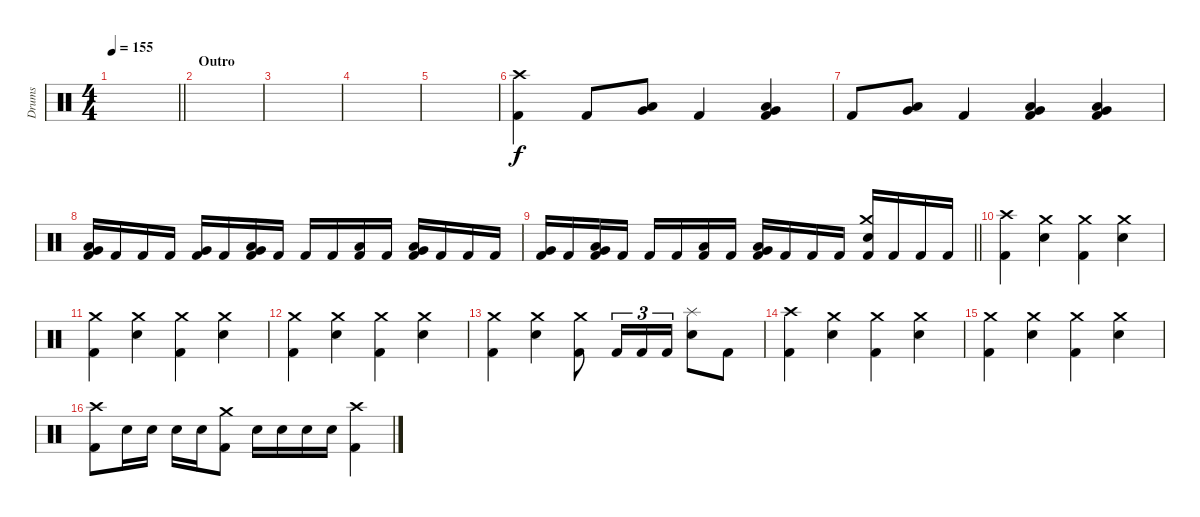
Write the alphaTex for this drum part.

\track ("Drums" "Drums") {instrument percussion}
\staff {score}
\articulation defaults
\ts (4 4)
\tempo 155
\clef neutral
\barLineRight lightlight
\ks c
|
\section ("" "Outro")
|
|
|
|
("Crash high (hit)" "Kick (hit) 2").4 "Kick (hit) 2".8 ("Low Tom (hit)" "Very Low Tom (hit)").8 "Kick (hit) 2".4 ("Very Low Tom (hit)" "Low Floor Tom (hit)" "Kick (hit) 2").4 |
"Kick (hit) 2".8 ("Low Tom (hit)" "Very Low Tom (hit)").8 "Kick (hit) 2".4 ("Very Low Tom (hit)" "Low Floor Tom (hit)" "Kick (hit) 2").4 ("Very Low Tom (hit)" "Low Floor Tom (hit)" "Kick (hit) 2").4 |
("Low Tom (hit)" "Very Low Tom (hit)" "Kick (hit) 2").16 "Kick (hit) 2".16 "Kick (hit) 2".16 "Kick (hit) 2".16 ("Very Low Tom (hit)" "Kick (hit) 2").16 "Kick (hit) 2".16 ("Very Low Tom (hit)" "Low Floor Tom (hit)" "Kick (hit) 2").16 "Kick (hit) 2".16 "Kick (hit) 2".16 "Kick (hit) 2".16 ("Low Tom (hit)" "Kick (hit) 2").16 "Kick (hit) 2".16 ("Low Tom (hit)" "Very Low Tom (hit)" "Kick (hit) 2").16 "Kick (hit) 2".16 "Kick (hit) 2".16 "Kick (hit) 2".16 |
\barLineRight lightlight
("Very Low Tom (hit)" "Kick (hit) 2").16 "Kick (hit) 2".16 ("Very Low Tom (hit)" "Low Floor Tom (hit)" "Kick (hit) 2").16 "Kick (hit) 2".16 "Kick (hit) 2".16 "Kick (hit) 2".16 ("Low Tom (hit)" "Kick (hit) 2").16 "Kick (hit) 2".16 ("Low Tom (hit)" "Very Low Tom (hit)" "Kick (hit) 2").16 "Kick (hit) 2".16 "Kick (hit) 2".16 "Kick (hit) 2".16 ("Crash medium (hit)" "Electric Snare (hit)" "Kick (hit) 2").16 "Kick (hit) 2".16 "Kick (hit) 2".16 "Kick (hit) 2".16 |
("Crash high (hit)" "Kick (hit) 2").4 ("Crash medium (hit)" "Electric Snare (hit)").4 ("Crash medium (hit)" "Kick (hit) 2").4 ("Crash medium (hit)" "Electric Snare (hit)").4 |
("Crash medium (hit)" "Kick (hit) 2").4 ("Crash medium (hit)" "Electric Snare (hit)").4 ("Crash medium (hit)" "Kick (hit) 2").4 ("Crash medium (hit)" "Electric Snare (hit)").4 |
("Crash medium (hit)" "Kick (hit) 2").4 ("Crash medium (hit)" "Electric Snare (hit)").4 ("Crash medium (hit)" "Kick (hit) 2").4 ("Crash medium (hit)" "Electric Snare (hit)").4 |
("Crash medium (hit)" "Kick (hit) 2").4 ("Crash medium (hit)" "Electric Snare (hit)").4 ("Crash medium (hit)" "Kick (hit) 2").8 "Kick (hit) 2".16{tu (3 2)} "Kick (hit) 2".16{tu (3 2)} "Kick (hit) 2".16{tu (3 2)} ("Splash (hit)" "Electric Snare (hit)").8 "Kick (hit) 2".8 |
("Crash high (hit)" "Kick (hit) 2").4 ("Crash medium (hit)" "Electric Snare (hit)").4 ("Crash medium (hit)" "Kick (hit) 2").4 ("Crash medium (hit)" "Electric Snare (hit)").4 |
("Crash medium (hit)" "Kick (hit) 2").4 ("Crash medium (hit)" "Electric Snare (hit)").4 ("Crash medium (hit)" "Kick (hit) 2").4 ("Crash medium (hit)" "Electric Snare (hit)").4 |
("Crash high (hit)" "Kick (hit) 2").8 "Electric Snare (hit)".16 "Electric Snare (hit)".16 "Electric Snare (hit)".16 "Electric Snare (hit)".16 ("Crash medium (hit)" "Kick (hit) 2").8 "Electric Snare (hit)".16 "Electric Snare (hit)".16 "Electric Snare (hit)".16 "Electric Snare (hit)".16 ("Crash high (hit)" "Kick (hit) 2").4
